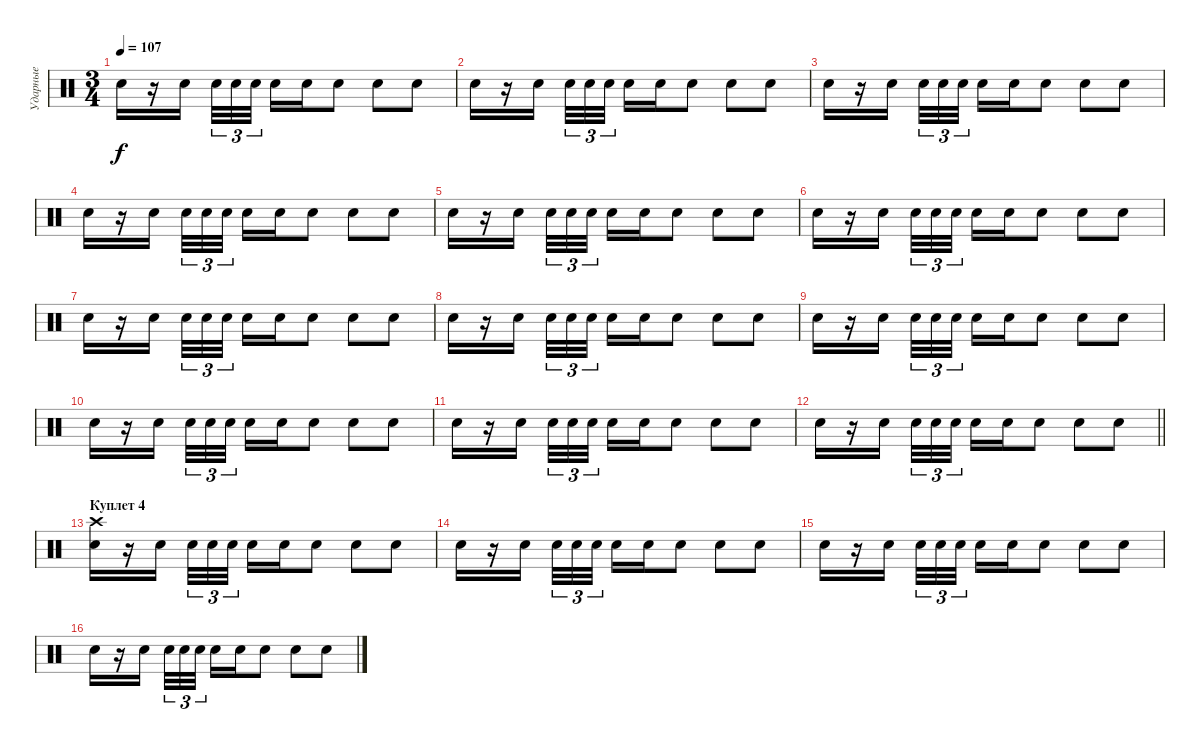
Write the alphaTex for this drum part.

\track ("Ударные" "Ударные") {instrument percussion}
\staff {score}
\articulation defaults
\ts (3 4)
\tempo 107
\clef neutral
\ks c "Snare (hit) 2".16{dy f}
r.16 "Snare (hit) 2".16{beam splitsecondary} "Snare (hit) 2".32{tu (3 2)} "Snare (hit) 2".32{tu (3 2)} "Snare (hit) 2".32{tu (3 2)} "Snare (hit) 2".16 "Snare (hit) 2".16 "Snare (hit) 2".8 "Snare (hit) 2".8 "Snare (hit) 2".8 |
"Snare (hit) 2".16 r.16 "Snare (hit) 2".16{beam splitsecondary} "Snare (hit) 2".32{tu (3 2)} "Snare (hit) 2".32{tu (3 2)} "Snare (hit) 2".32{tu (3 2)} "Snare (hit) 2".16 "Snare (hit) 2".16 "Snare (hit) 2".8 "Snare (hit) 2".8 "Snare (hit) 2".8 |
"Snare (hit) 2".16 r.16 "Snare (hit) 2".16{beam splitsecondary} "Snare (hit) 2".32{tu (3 2)} "Snare (hit) 2".32{tu (3 2)} "Snare (hit) 2".32{tu (3 2)} "Snare (hit) 2".16 "Snare (hit) 2".16 "Snare (hit) 2".8 "Snare (hit) 2".8 "Snare (hit) 2".8 |
"Snare (hit) 2".16 r.16 "Snare (hit) 2".16{beam splitsecondary} "Snare (hit) 2".32{tu (3 2)} "Snare (hit) 2".32{tu (3 2)} "Snare (hit) 2".32{tu (3 2)} "Snare (hit) 2".16 "Snare (hit) 2".16 "Snare (hit) 2".8 "Snare (hit) 2".8 "Snare (hit) 2".8 |
"Snare (hit) 2".16 r.16 "Snare (hit) 2".16{beam splitsecondary} "Snare (hit) 2".32{tu (3 2)} "Snare (hit) 2".32{tu (3 2)} "Snare (hit) 2".32{tu (3 2)} "Snare (hit) 2".16 "Snare (hit) 2".16 "Snare (hit) 2".8 "Snare (hit) 2".8 "Snare (hit) 2".8 |
"Snare (hit) 2".16 r.16 "Snare (hit) 2".16{beam splitsecondary} "Snare (hit) 2".32{tu (3 2)} "Snare (hit) 2".32{tu (3 2)} "Snare (hit) 2".32{tu (3 2)} "Snare (hit) 2".16 "Snare (hit) 2".16 "Snare (hit) 2".8 "Snare (hit) 2".8 "Snare (hit) 2".8 |
"Snare (hit) 2".16 r.16 "Snare (hit) 2".16{beam splitsecondary} "Snare (hit) 2".32{tu (3 2)} "Snare (hit) 2".32{tu (3 2)} "Snare (hit) 2".32{tu (3 2)} "Snare (hit) 2".16 "Snare (hit) 2".16 "Snare (hit) 2".8 "Snare (hit) 2".8 "Snare (hit) 2".8 |
"Snare (hit) 2".16 r.16 "Snare (hit) 2".16{beam splitsecondary} "Snare (hit) 2".32{tu (3 2)} "Snare (hit) 2".32{tu (3 2)} "Snare (hit) 2".32{tu (3 2)} "Snare (hit) 2".16 "Snare (hit) 2".16 "Snare (hit) 2".8 "Snare (hit) 2".8 "Snare (hit) 2".8 |
"Snare (hit) 2".16 r.16 "Snare (hit) 2".16{beam splitsecondary} "Snare (hit) 2".32{tu (3 2)} "Snare (hit) 2".32{tu (3 2)} "Snare (hit) 2".32{tu (3 2)} "Snare (hit) 2".16 "Snare (hit) 2".16 "Snare (hit) 2".8 "Snare (hit) 2".8 "Snare (hit) 2".8 |
"Snare (hit) 2".16 r.16 "Snare (hit) 2".16{beam splitsecondary} "Snare (hit) 2".32{tu (3 2)} "Snare (hit) 2".32{tu (3 2)} "Snare (hit) 2".32{tu (3 2)} "Snare (hit) 2".16 "Snare (hit) 2".16 "Snare (hit) 2".8 "Snare (hit) 2".8 "Snare (hit) 2".8 |
"Snare (hit) 2".16 r.16 "Snare (hit) 2".16{beam splitsecondary} "Snare (hit) 2".32{tu (3 2)} "Snare (hit) 2".32{tu (3 2)} "Snare (hit) 2".32{tu (3 2)} "Snare (hit) 2".16 "Snare (hit) 2".16 "Snare (hit) 2".8 "Snare (hit) 2".8 "Snare (hit) 2".8 |
\barLineRight lightlight "Snare (hit) 2".16
r.16 "Snare (hit) 2".16{beam splitsecondary} "Snare (hit) 2".32{tu (3 2)} "Snare (hit) 2".32{tu (3 2)} "Snare (hit) 2".32{tu (3 2)} "Snare (hit) 2".16 "Snare (hit) 2".16 "Snare (hit) 2".8 "Snare (hit) 2".8 "Snare (hit) 2".8 |
\section ("" "Куплет 4")
("Crash high (hit)" "Snare (hit) 2").16{volume 6} r.16 "Snare (hit) 2".16{beam splitsecondary} "Snare (hit) 2".32{tu (3 2)} "Snare (hit) 2".32{tu (3 2)} "Snare (hit) 2".32{tu (3 2)} "Snare (hit) 2".16 "Snare (hit) 2".16 "Snare (hit) 2".8 "Snare (hit) 2".8 "Snare (hit) 2".8 |
"Snare (hit) 2".16 r.16 "Snare (hit) 2".16{beam splitsecondary} "Snare (hit) 2".32{tu (3 2)} "Snare (hit) 2".32{tu (3 2)} "Snare (hit) 2".32{tu (3 2)} "Snare (hit) 2".16 "Snare (hit) 2".16 "Snare (hit) 2".8 "Snare (hit) 2".8 "Snare (hit) 2".8 |
"Snare (hit) 2".16 r.16 "Snare (hit) 2".16{beam splitsecondary} "Snare (hit) 2".32{tu (3 2)} "Snare (hit) 2".32{tu (3 2)} "Snare (hit) 2".32{tu (3 2)} "Snare (hit) 2".16 "Snare (hit) 2".16 "Snare (hit) 2".8 "Snare (hit) 2".8 "Snare (hit) 2".8 |
"Snare (hit) 2".16 r.16 "Snare (hit) 2".16{beam splitsecondary} "Snare (hit) 2".32{tu (3 2)} "Snare (hit) 2".32{tu (3 2)} "Snare (hit) 2".32{tu (3 2)} "Snare (hit) 2".16 "Snare (hit) 2".16 "Snare (hit) 2".8 "Snare (hit) 2".8 "Snare (hit) 2".8
